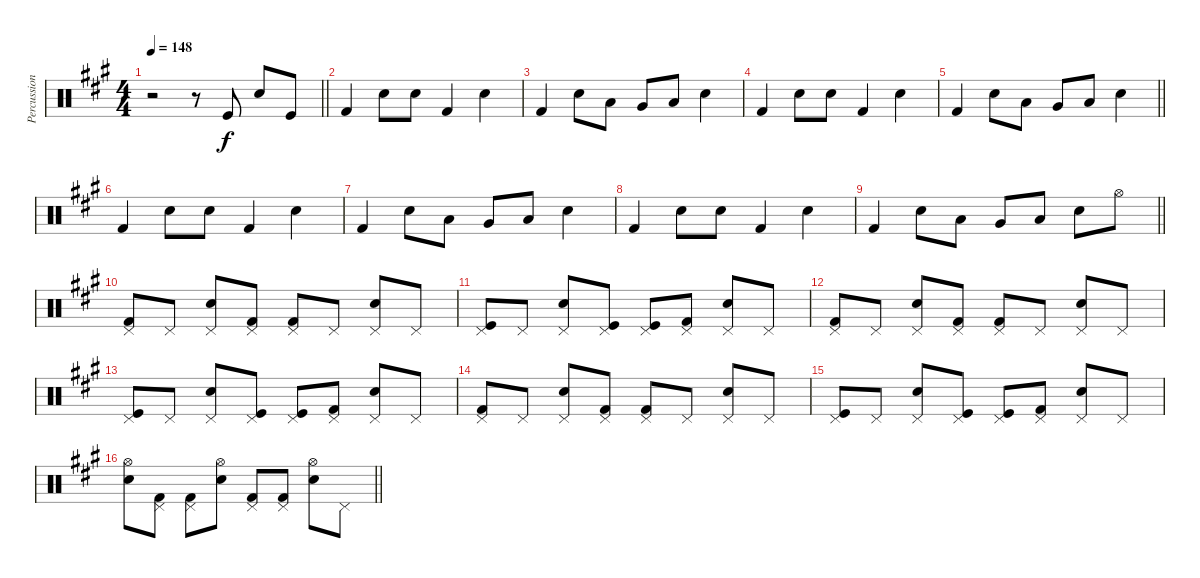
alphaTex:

\track ("Percussion" "Percussion") {instrument percussion}
\staff {score}
\articulation defaults
\ts (4 4)
\tempo 148
\clef neutral
\barLineRight lightlight
\ks a
r.2{dy f} r.8 "Kick (hit)".8 "Electric Snare (hit)".8 "Kick (hit)".8 |
"Kick (hit) 2".4 "Electric Snare (hit)".8 "Electric Snare (hit)".8 "Kick (hit) 2".4 "Electric Snare (hit)".4 |
"Kick (hit) 2".4 "Electric Snare (hit)".8 "Low Tom (hit)".8 "Very Low Tom (hit)".8 "Low Floor Tom (hit)".8 "Electric Snare (hit)".4 |
"Kick (hit) 2".4 "Electric Snare (hit)".8 "Electric Snare (hit)".8 "Kick (hit) 2".4 "Electric Snare (hit)".4 |
\barLineRight lightlight "Kick (hit) 2".4 "Electric Snare (hit)".8 "Low Tom (hit)".8 "Very Low Tom (hit)".8 "Low Floor Tom (hit)".8 "Electric Snare (hit)".4
|
"Kick (hit) 2".4 "Electric Snare (hit)".8 "Electric Snare (hit)".8 "Kick (hit) 2".4 "Electric Snare (hit)".4 |
"Kick (hit) 2".4 "Electric Snare (hit)".8 "Low Tom (hit)".8 "Very Low Tom (hit)".8 "Low Floor Tom (hit)".8 "Electric Snare (hit)".4 |
"Kick (hit) 2".4 "Electric Snare (hit)".8 "Electric Snare (hit)".8 "Kick (hit) 2".4 "Electric Snare (hit)".4 |
\barLineRight lightlight "Kick (hit) 2".4 "Electric Snare (hit)".8 "Low Tom (hit)".8 "Very Low Tom (hit)".8 "Low Floor Tom (hit)".8 "Electric Snare (hit)".8 "Hi-Hat (open)".8
|
("Pedal Hi-Hat (hit)" "Kick (hit) 2").8 "Pedal Hi-Hat (hit)".8 ("Pedal Hi-Hat (hit)" "Electric Snare (hit)").8 ("Pedal Hi-Hat (hit)" "Kick (hit) 2").8 ("Pedal Hi-Hat (hit)" "Kick (hit) 2").8 "Pedal Hi-Hat (hit)".8 ("Pedal Hi-Hat (hit)" "Electric Snare (hit)").8 "Pedal Hi-Hat (hit)".8 |
("Pedal Hi-Hat (hit)" "Kick (hit)").8 "Pedal Hi-Hat (hit)".8 ("Pedal Hi-Hat (hit)" "Electric Snare (hit)").8 ("Pedal Hi-Hat (hit)" "Kick (hit)").8 ("Pedal Hi-Hat (hit)" "Kick (hit)").8 ("Pedal Hi-Hat (hit)" "Kick (hit) 2").8 ("Pedal Hi-Hat (hit)" "Electric Snare (hit)").8 "Pedal Hi-Hat (hit)".8 |
("Pedal Hi-Hat (hit)" "Kick (hit) 2").8 "Pedal Hi-Hat (hit)".8 ("Pedal Hi-Hat (hit)" "Electric Snare (hit)").8 ("Pedal Hi-Hat (hit)" "Kick (hit) 2").8 ("Pedal Hi-Hat (hit)" "Kick (hit) 2").8 "Pedal Hi-Hat (hit)".8 ("Pedal Hi-Hat (hit)" "Electric Snare (hit)").8 "Pedal Hi-Hat (hit)".8 |
("Pedal Hi-Hat (hit)" "Kick (hit)").8 "Pedal Hi-Hat (hit)".8 ("Pedal Hi-Hat (hit)" "Electric Snare (hit)").8 ("Pedal Hi-Hat (hit)" "Kick (hit)").8 ("Pedal Hi-Hat (hit)" "Kick (hit)").8 ("Pedal Hi-Hat (hit)" "Kick (hit) 2").8 ("Pedal Hi-Hat (hit)" "Electric Snare (hit)").8 "Pedal Hi-Hat (hit)".8 |
("Pedal Hi-Hat (hit)" "Kick (hit) 2").8 "Pedal Hi-Hat (hit)".8 ("Pedal Hi-Hat (hit)" "Electric Snare (hit)").8 ("Pedal Hi-Hat (hit)" "Kick (hit) 2").8 ("Pedal Hi-Hat (hit)" "Kick (hit) 2").8 "Pedal Hi-Hat (hit)".8 ("Pedal Hi-Hat (hit)" "Electric Snare (hit)").8 "Pedal Hi-Hat (hit)".8 |
("Pedal Hi-Hat (hit)" "Kick (hit)").8 "Pedal Hi-Hat (hit)".8 ("Pedal Hi-Hat (hit)" "Electric Snare (hit)").8 ("Pedal Hi-Hat (hit)" "Kick (hit)").8 ("Pedal Hi-Hat (hit)" "Kick (hit)").8 ("Pedal Hi-Hat (hit)" "Kick (hit) 2").8 ("Pedal Hi-Hat (hit)" "Electric Snare (hit)").8 "Pedal Hi-Hat (hit)".8 |
\barLineRight lightlight
("Hi-Hat (open)" "Electric Snare (hit)").8 ("Pedal Hi-Hat (hit)" "Kick (hit) 2").8 ("Pedal Hi-Hat (hit)" "Kick (hit) 2").8 ("Hi-Hat (open)" "Electric Snare (hit)").8 ("Pedal Hi-Hat (hit)" "Kick (hit) 2").8 ("Pedal Hi-Hat (hit)" "Kick (hit) 2").8 ("Hi-Hat (open)" "Electric Snare (hit)").8 "Pedal Hi-Hat (hit)".8
